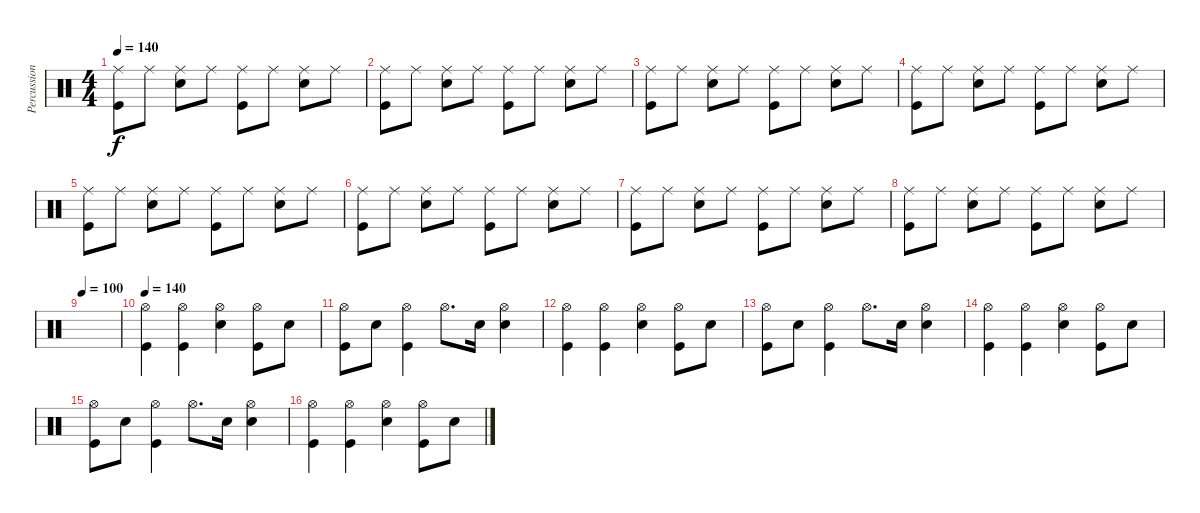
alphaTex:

\track ("Percussion" "Percussion") {instrument percussion}
\staff {score}
\articulation defaults
\ts (4 4)
\tempo 140
\clef neutral
\ks c
("Ride (middle)" "Kick (hit)").8{dy f} "Ride (middle)".8 ("Ride (middle)" "Snare (hit) 2").8 "Ride (middle)".8 ("Ride (middle)" "Kick (hit)").8 "Ride (middle)".8 ("Ride (middle)" "Snare (hit) 2").8 "Ride (middle)".8 |
("Ride (middle)" "Kick (hit)").8 "Ride (middle)".8 ("Ride (middle)" "Snare (hit) 2").8 "Ride (middle)".8 ("Ride (middle)" "Kick (hit)").8 "Ride (middle)".8 ("Ride (middle)" "Snare (hit) 2").8 "Ride (middle)".8 |
("Ride (middle)" "Kick (hit)").8 "Ride (middle)".8 ("Ride (middle)" "Snare (hit) 2").8 "Ride (middle)".8 ("Ride (middle)" "Kick (hit)").8 "Ride (middle)".8 ("Ride (middle)" "Snare (hit) 2").8 "Ride (middle)".8 |
("Ride (middle)" "Kick (hit)").8 "Ride (middle)".8 ("Ride (middle)" "Snare (hit) 2").8 "Ride (middle)".8 ("Ride (middle)" "Kick (hit)").8 "Ride (middle)".8 ("Ride (middle)" "Snare (hit) 2").8 "Ride (middle)".8 |
("Ride (middle)" "Kick (hit)").8 "Ride (middle)".8 ("Ride (middle)" "Snare (hit) 2").8 "Ride (middle)".8 ("Ride (middle)" "Kick (hit)").8 "Ride (middle)".8 ("Ride (middle)" "Snare (hit) 2").8 "Ride (middle)".8 |
("Ride (middle)" "Kick (hit)").8 "Ride (middle)".8 ("Ride (middle)" "Snare (hit) 2").8 "Ride (middle)".8 ("Ride (middle)" "Kick (hit)").8 "Ride (middle)".8 ("Ride (middle)" "Snare (hit) 2").8 "Ride (middle)".8 |
("Ride (middle)" "Kick (hit)").8 "Ride (middle)".8 ("Ride (middle)" "Snare (hit) 2").8 "Ride (middle)".8 ("Ride (middle)" "Kick (hit)").8 "Ride (middle)".8 ("Ride (middle)" "Snare (hit) 2").8 "Ride (middle)".8 |
("Ride (middle)" "Kick (hit)").8 "Ride (middle)".8 ("Ride (middle)" "Snare (hit) 2").8 "Ride (middle)".8 ("Ride (middle)" "Kick (hit)").8 "Ride (middle)".8 ("Ride (middle)" "Snare (hit) 2").8 "Ride (middle)".8 |
\tempo 100
|
\tempo 140
("Hi-Hat (open)" "Kick (hit)").4 ("Hi-Hat (open)" "Kick (hit)").4 ("Hi-Hat (open)" "Snare (hit) 2").4 ("Hi-Hat (open)" "Kick (hit)").8 "Snare (hit) 2".8 |
("Hi-Hat (open)" "Kick (hit)").8 "Snare (hit) 2".8 ("Hi-Hat (open)" "Kick (hit)").4 "Hi-Hat (open)".8{d} "Snare (hit) 2".16 ("Hi-Hat (open)" "Snare (hit) 2").4 |
("Hi-Hat (open)" "Kick (hit)").4 ("Hi-Hat (open)" "Kick (hit)").4 ("Hi-Hat (open)" "Snare (hit) 2").4 ("Hi-Hat (open)" "Kick (hit)").8 "Snare (hit) 2".8 |
("Hi-Hat (open)" "Kick (hit)").8 "Snare (hit) 2".8 ("Hi-Hat (open)" "Kick (hit)").4 "Hi-Hat (open)".8{d} "Snare (hit) 2".16 ("Hi-Hat (open)" "Snare (hit) 2").4 |
("Hi-Hat (open)" "Kick (hit)").4 ("Hi-Hat (open)" "Kick (hit)").4 ("Hi-Hat (open)" "Snare (hit) 2").4 ("Hi-Hat (open)" "Kick (hit)").8 "Snare (hit) 2".8 |
("Hi-Hat (open)" "Kick (hit)").8 "Snare (hit) 2".8 ("Hi-Hat (open)" "Kick (hit)").4 "Hi-Hat (open)".8{d} "Snare (hit) 2".16 ("Hi-Hat (open)" "Snare (hit) 2").4 |
("Hi-Hat (open)" "Kick (hit)").4 ("Hi-Hat (open)" "Kick (hit)").4 ("Hi-Hat (open)" "Snare (hit) 2").4 ("Hi-Hat (open)" "Kick (hit)").8 "Snare (hit) 2".8
